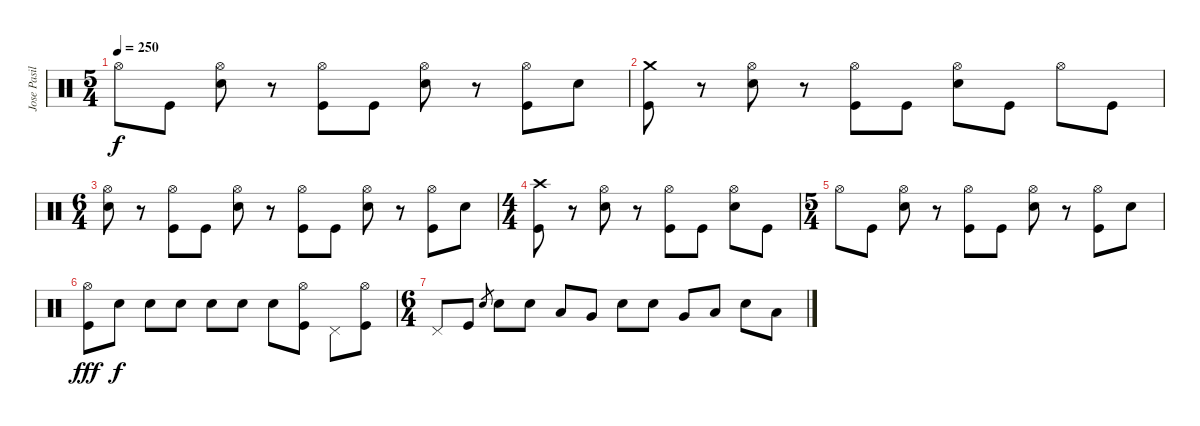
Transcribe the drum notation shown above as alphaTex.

\track ("Jose Pasillas II" "Jose Pasil") {instrument percussion}
\staff {score}
\articulation defaults
\ts (5 4)
\tempo 250
\clef neutral
\ks c "Hi-Hat (open)".8{dy f} "Kick (hit)".8
("Hi-Hat (open)" "Electric Snare (hit)").8 r.8 ("Hi-Hat (open)" "Kick (hit)").8 "Kick (hit)".8 ("Hi-Hat (open)" "Electric Snare (hit)").8 r.8 ("Hi-Hat (open)" "Kick (hit)").8 "Electric Snare (hit)".8 |
("Crash medium (hit)" "Kick (hit)").8 r.8 ("Hi-Hat (open)" "Electric Snare (hit)").8 r.8 ("Hi-Hat (open)" "Kick (hit)").8 "Kick (hit)".8 ("Hi-Hat (open)" "Electric Snare (hit)").8 "Kick (hit)".8 "Hi-Hat (open)".8 "Kick (hit)".8 |
\ts (6 4)
("Hi-Hat (open)" "Electric Snare (hit)").8 r.8 ("Hi-Hat (open)" "Kick (hit)").8 "Kick (hit)".8 ("Hi-Hat (open)" "Electric Snare (hit)").8 r.8 ("Hi-Hat (open)" "Kick (hit)").8 "Kick (hit)".8 ("Hi-Hat (open)" "Electric Snare (hit)").8 r.8 ("Hi-Hat (open)" "Kick (hit)").8 "Electric Snare (hit)".8 |
\ts (4 4)
("Crash high (hit)" "Kick (hit)").8 r.8 ("Hi-Hat (open)" "Electric Snare (hit)").8 r.8 ("Hi-Hat (open)" "Kick (hit)").8 "Kick (hit)".8 ("Hi-Hat (open)" "Electric Snare (hit)").8 "Kick (hit)".8 |
\ts (5 4)
"Hi-Hat (open)".8 "Kick (hit)".8 ("Hi-Hat (open)" "Electric Snare (hit)").8 r.8 ("Hi-Hat (open)" "Kick (hit)").8 "Kick (hit)".8 ("Hi-Hat (open)" "Electric Snare (hit)").8 r.8 ("Hi-Hat (open)" "Kick (hit)").8 "Electric Snare (hit)".8 |
("Hi-Hat (open)" "Kick (hit)").8{dy fff} "Electric Snare (hit)".8{dy f} "Electric Snare (hit)".8 "Electric Snare (hit)".8 "Electric Snare (hit)".8 "Electric Snare (hit)".8 "Electric Snare (hit)".8 ("Hi-Hat (open)" "Kick (hit)").8 "Pedal Hi-Hat (hit)".8 ("Hi-Hat (open)" "Kick (hit)").8 |
\ts (6 4)
"Pedal Hi-Hat (hit)".8 "Kick (hit)".8 "Electric Snare (hit)".8{gr} "Electric Snare (hit)".8 "Electric Snare (hit)".8 "Low Tom (hit)".8 "Very Low Tom (hit)".8 "Electric Snare (hit)".8 "Electric Snare (hit)".8 "Very Low Tom (hit)".8 "Low Floor Tom (hit)".8 "Electric Snare (hit)".8 "Low Floor Tom (hit)".8
